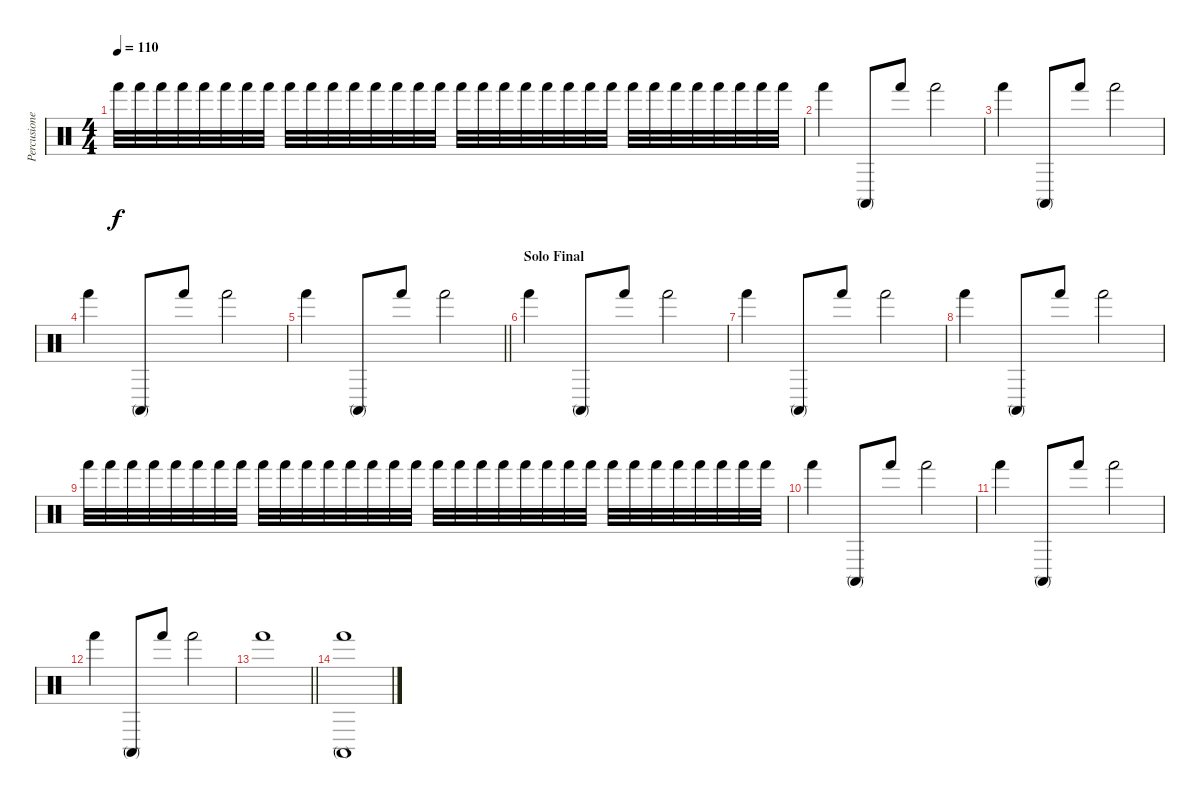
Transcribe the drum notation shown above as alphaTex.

\track ("Percusiones" "Percusione") {instrument percussion}
\staff {score}
\articulation defaults
\ts (4 4)
\tempo 110
\clef neutral
\ks c "Hand (hit)".32{dy f} "Hand (hit)".32 "Hand (hit)".32 "Hand (hit)".32 "Hand (hit)".32 "Hand (hit)".32 "Hand (hit)".32 "Hand (hit)".32 "Hand (hit)".32 "Hand (hit)".32 "Hand (hit)".32 "Hand (hit)".32 "Hand (hit)".32 "Hand (hit)".32 "Hand (hit)".32 "Hand (hit)".32 "Hand (hit)".32 "Hand (hit)".32 "Hand (hit)".32 "Hand (hit)".32 "Hand (hit)".32 "Hand (hit)".32 "Hand (hit)".32 "Hand (hit)".32 "Hand (hit)".32 "Hand (hit)".32 "Hand (hit)".32 "Hand (hit)".32 "Hand (hit)".32 "Hand (hit)".32 "Hand (hit)".32 "Hand (hit)".32
|
"Hand (hit)".4 "Conga high (mute)".8 "Hand (hit)".8 "Hand (hit)".2 |
"Hand (hit)".4 "Conga high (mute)".8 "Hand (hit)".8 "Hand (hit)".2 |
"Hand (hit)".4 "Conga high (mute)".8 "Hand (hit)".8 "Hand (hit)".2 |
\barLineRight lightlight "Hand (hit)".4 "Conga high (mute)".8 "Hand (hit)".8 "Hand (hit)".2
|
\section ("" "Solo Final")
"Hand (hit)".4 "Conga high (mute)".8 "Hand (hit)".8 "Hand (hit)".2 |
"Hand (hit)".4 "Conga high (mute)".8 "Hand (hit)".8 "Hand (hit)".2 |
"Hand (hit)".4 "Conga high (mute)".8 "Hand (hit)".8 "Hand (hit)".2 |
"Hand (hit)".32 "Hand (hit)".32 "Hand (hit)".32 "Hand (hit)".32 "Hand (hit)".32 "Hand (hit)".32 "Hand (hit)".32 "Hand (hit)".32 "Hand (hit)".32 "Hand (hit)".32 "Hand (hit)".32 "Hand (hit)".32 "Hand (hit)".32 "Hand (hit)".32 "Hand (hit)".32 "Hand (hit)".32 "Hand (hit)".32 "Hand (hit)".32 "Hand (hit)".32 "Hand (hit)".32 "Hand (hit)".32 "Hand (hit)".32 "Hand (hit)".32 "Hand (hit)".32 "Hand (hit)".32 "Hand (hit)".32 "Hand (hit)".32 "Hand (hit)".32 "Hand (hit)".32 "Hand (hit)".32 "Hand (hit)".32 "Hand (hit)".32 |
"Hand (hit)".4 "Conga high (mute)".8 "Hand (hit)".8 "Hand (hit)".2 |
"Hand (hit)".4 "Conga high (mute)".8 "Hand (hit)".8 "Hand (hit)".2 |
"Hand (hit)".4 "Conga high (mute)".8 "Hand (hit)".8 "Hand (hit)".2 |
\barLineRight lightlight "Hand (hit)".1
|
("Conga high (mute)" "Hand (hit)").1
